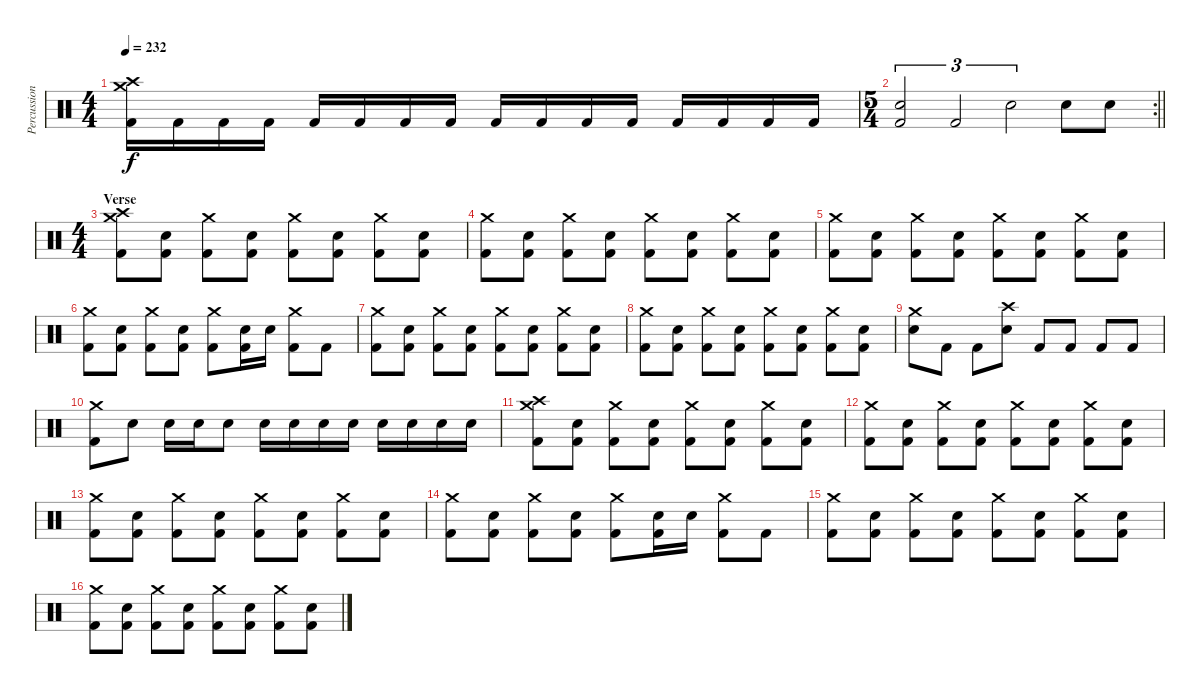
\track ("Percussion" "Percussion") {instrument percussion}
\staff {score}
\articulation defaults
\ts (4 4)
\tempo 232
\clef neutral
\ks c
("Crash medium (hit)" "Crash high (hit)" "Kick (hit) 2").16{dy f} "Kick (hit) 2".16 "Kick (hit) 2".16 "Kick (hit) 2".16 "Kick (hit) 2".16 "Kick (hit) 2".16 "Kick (hit) 2".16 "Kick (hit) 2".16 "Kick (hit) 2".16 "Kick (hit) 2".16 "Kick (hit) 2".16 "Kick (hit) 2".16 "Kick (hit) 2".16 "Kick (hit) 2".16 "Kick (hit) 2".16 "Kick (hit) 2".16 |
\rc 2
\ts (5 4)
\barLineRight lightlight
("Electric Snare (hit)" "Kick (hit) 2").2{tu (3 2)} "Kick (hit) 2".2{tu (3 2)} "Electric Snare (hit)".2{tu (3 2)} "Electric Snare (hit)".8 "Electric Snare (hit)".8 |
\ts (4 4)
\section ("" "Verse")
("Crash medium (hit)" "Crash high (hit)" "Kick (hit) 2").8 ("Electric Snare (hit)" "Kick (hit) 2").8 ("Crash medium (hit)" "Kick (hit) 2").8 ("Electric Snare (hit)" "Kick (hit) 2").8 ("Crash medium (hit)" "Kick (hit) 2").8 ("Electric Snare (hit)" "Kick (hit) 2").8 ("Crash medium (hit)" "Kick (hit) 2").8 ("Electric Snare (hit)" "Kick (hit) 2").8 |
("Crash medium (hit)" "Kick (hit) 2").8 ("Electric Snare (hit)" "Kick (hit) 2").8 ("Crash medium (hit)" "Kick (hit) 2").8 ("Electric Snare (hit)" "Kick (hit) 2").8 ("Crash medium (hit)" "Kick (hit) 2").8 ("Electric Snare (hit)" "Kick (hit) 2").8 ("Crash medium (hit)" "Kick (hit) 2").8 ("Electric Snare (hit)" "Kick (hit) 2").8 |
("Crash medium (hit)" "Kick (hit) 2").8 ("Electric Snare (hit)" "Kick (hit) 2").8 ("Crash medium (hit)" "Kick (hit) 2").8 ("Electric Snare (hit)" "Kick (hit) 2").8 ("Crash medium (hit)" "Kick (hit) 2").8 ("Electric Snare (hit)" "Kick (hit) 2").8 ("Crash medium (hit)" "Kick (hit) 2").8 ("Electric Snare (hit)" "Kick (hit) 2").8 |
("Crash medium (hit)" "Kick (hit) 2").8 ("Electric Snare (hit)" "Kick (hit) 2").8 ("Crash medium (hit)" "Kick (hit) 2").8 ("Electric Snare (hit)" "Kick (hit) 2").8 ("Crash medium (hit)" "Kick (hit) 2").8 ("Electric Snare (hit)" "Kick (hit) 2").16 "Electric Snare (hit)".16 ("Crash medium (hit)" "Kick (hit) 2").8 "Kick (hit) 2".8 |
("Crash medium (hit)" "Kick (hit) 2").8 ("Electric Snare (hit)" "Kick (hit) 2").8 ("Crash medium (hit)" "Kick (hit) 2").8 ("Electric Snare (hit)" "Kick (hit) 2").8 ("Crash medium (hit)" "Kick (hit) 2").8 ("Electric Snare (hit)" "Kick (hit) 2").8 ("Crash medium (hit)" "Kick (hit) 2").8 ("Electric Snare (hit)" "Kick (hit) 2").8 |
("Crash medium (hit)" "Kick (hit) 2").8 ("Electric Snare (hit)" "Kick (hit) 2").8 ("Crash medium (hit)" "Kick (hit) 2").8 ("Electric Snare (hit)" "Kick (hit) 2").8 ("Crash medium (hit)" "Kick (hit) 2").8 ("Electric Snare (hit)" "Kick (hit) 2").8 ("Crash medium (hit)" "Kick (hit) 2").8 ("Electric Snare (hit)" "Kick (hit) 2").8 |
("Crash medium (hit)" "Electric Snare (hit)").8 "Kick (hit) 2".8 "Kick (hit) 2".8 ("Crash high (hit)" "Electric Snare (hit)").8 "Kick (hit) 2".8 "Kick (hit) 2".8 "Kick (hit) 2".8 "Kick (hit) 2".8 |
("Crash medium (hit)" "Kick (hit) 2").8 "Electric Snare (hit)".8 "Electric Snare (hit)".16 "Electric Snare (hit)".16 "Electric Snare (hit)".8 "Electric Snare (hit)".16 "Electric Snare (hit)".16 "Electric Snare (hit)".16 "Electric Snare (hit)".16 "Electric Snare (hit)".16 "Electric Snare (hit)".16 "Electric Snare (hit)".16 "Electric Snare (hit)".16 |
("Crash medium (hit)" "Crash high (hit)" "Kick (hit) 2").8 ("Electric Snare (hit)" "Kick (hit) 2").8 ("Crash medium (hit)" "Kick (hit) 2").8 ("Electric Snare (hit)" "Kick (hit) 2").8 ("Crash medium (hit)" "Kick (hit) 2").8 ("Electric Snare (hit)" "Kick (hit) 2").8 ("Crash medium (hit)" "Kick (hit) 2").8 ("Electric Snare (hit)" "Kick (hit) 2").8 |
("Crash medium (hit)" "Kick (hit) 2").8 ("Electric Snare (hit)" "Kick (hit) 2").8 ("Crash medium (hit)" "Kick (hit) 2").8 ("Electric Snare (hit)" "Kick (hit) 2").8 ("Crash medium (hit)" "Kick (hit) 2").8 ("Electric Snare (hit)" "Kick (hit) 2").8 ("Crash medium (hit)" "Kick (hit) 2").8 ("Electric Snare (hit)" "Kick (hit) 2").8 |
("Crash medium (hit)" "Kick (hit) 2").8 ("Electric Snare (hit)" "Kick (hit) 2").8 ("Crash medium (hit)" "Kick (hit) 2").8 ("Electric Snare (hit)" "Kick (hit) 2").8 ("Crash medium (hit)" "Kick (hit) 2").8 ("Electric Snare (hit)" "Kick (hit) 2").8 ("Crash medium (hit)" "Kick (hit) 2").8 ("Electric Snare (hit)" "Kick (hit) 2").8 |
("Crash medium (hit)" "Kick (hit) 2").8 ("Electric Snare (hit)" "Kick (hit) 2").8 ("Crash medium (hit)" "Kick (hit) 2").8 ("Electric Snare (hit)" "Kick (hit) 2").8 ("Crash medium (hit)" "Kick (hit) 2").8 ("Electric Snare (hit)" "Kick (hit) 2").16 "Electric Snare (hit)".16 ("Crash medium (hit)" "Kick (hit) 2").8 "Kick (hit) 2".8 |
("Crash medium (hit)" "Kick (hit) 2").8 ("Electric Snare (hit)" "Kick (hit) 2").8 ("Crash medium (hit)" "Kick (hit) 2").8 ("Electric Snare (hit)" "Kick (hit) 2").8 ("Crash medium (hit)" "Kick (hit) 2").8 ("Electric Snare (hit)" "Kick (hit) 2").8 ("Crash medium (hit)" "Kick (hit) 2").8 ("Electric Snare (hit)" "Kick (hit) 2").8 |
("Crash medium (hit)" "Kick (hit) 2").8 ("Electric Snare (hit)" "Kick (hit) 2").8 ("Crash medium (hit)" "Kick (hit) 2").8 ("Electric Snare (hit)" "Kick (hit) 2").8 ("Crash medium (hit)" "Kick (hit) 2").8 ("Electric Snare (hit)" "Kick (hit) 2").8 ("Crash medium (hit)" "Kick (hit) 2").8 ("Electric Snare (hit)" "Kick (hit) 2").8
